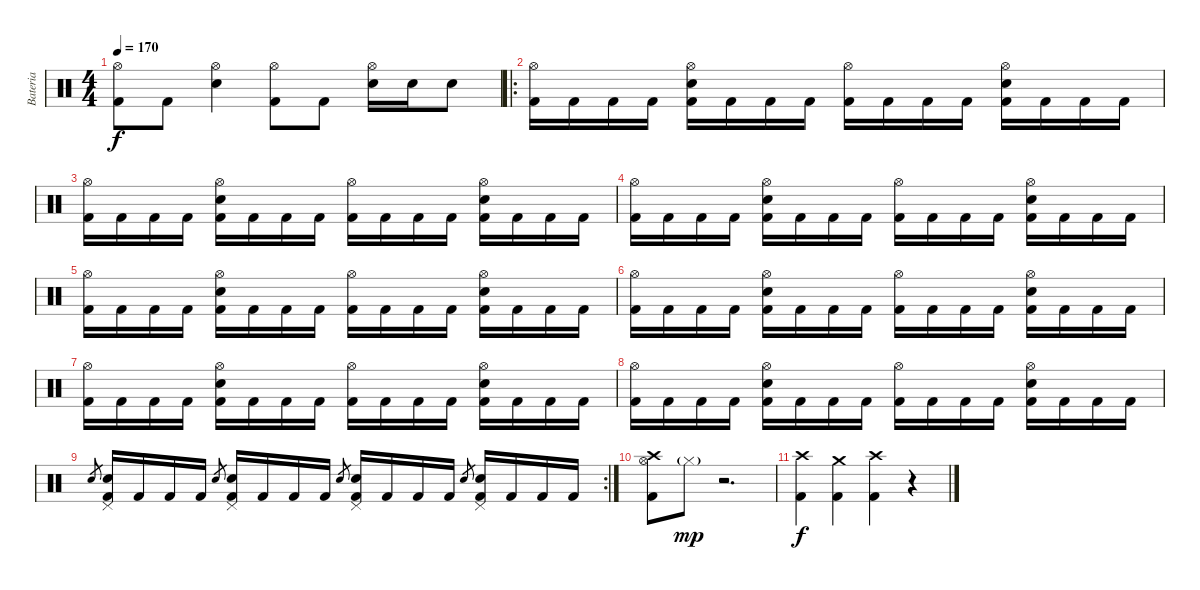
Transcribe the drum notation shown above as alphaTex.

\track ("Bateria" "Bateria") {instrument percussion}
\staff {score}
\articulation defaults
\ts (4 4)
\tempo 170
\clef neutral
\ks c
("Hi-Hat (open)" "Kick (hit) 2").8{dy f} "Kick (hit) 2".8 ("Hi-Hat (open)" "Snare (hit) 2").4 ("Hi-Hat (open)" "Kick (hit) 2").8 "Kick (hit) 2".8 ("Hi-Hat (open)" "Snare (hit) 2").16 "Snare (hit) 2".16 "Snare (hit) 2".8 |
\ro
("Hi-Hat (open)" "Kick (hit) 2").16 "Kick (hit) 2".16 "Kick (hit) 2".16 "Kick (hit) 2".16 ("Hi-Hat (open)" "Snare (hit) 2" "Kick (hit) 2").16 "Kick (hit) 2".16 "Kick (hit) 2".16 "Kick (hit) 2".16 ("Hi-Hat (open)" "Kick (hit) 2").16 "Kick (hit) 2".16 "Kick (hit) 2".16 "Kick (hit) 2".16 ("Hi-Hat (open)" "Snare (hit) 2" "Kick (hit) 2").16 "Kick (hit) 2".16 "Kick (hit) 2".16 "Kick (hit) 2".16 |
("Hi-Hat (open)" "Kick (hit) 2").16 "Kick (hit) 2".16 "Kick (hit) 2".16 "Kick (hit) 2".16 ("Hi-Hat (open)" "Snare (hit) 2" "Kick (hit) 2").16 "Kick (hit) 2".16 "Kick (hit) 2".16 "Kick (hit) 2".16 ("Hi-Hat (open)" "Kick (hit) 2").16 "Kick (hit) 2".16 "Kick (hit) 2".16 "Kick (hit) 2".16 ("Hi-Hat (open)" "Snare (hit) 2" "Kick (hit) 2").16 "Kick (hit) 2".16 "Kick (hit) 2".16 "Kick (hit) 2".16 |
("Hi-Hat (open)" "Kick (hit) 2").16 "Kick (hit) 2".16 "Kick (hit) 2".16 "Kick (hit) 2".16 ("Hi-Hat (open)" "Snare (hit) 2" "Kick (hit) 2").16 "Kick (hit) 2".16 "Kick (hit) 2".16 "Kick (hit) 2".16 ("Hi-Hat (open)" "Kick (hit) 2").16 "Kick (hit) 2".16 "Kick (hit) 2".16 "Kick (hit) 2".16 ("Hi-Hat (open)" "Snare (hit) 2" "Kick (hit) 2").16 "Kick (hit) 2".16 "Kick (hit) 2".16 "Kick (hit) 2".16 |
("Hi-Hat (open)" "Kick (hit) 2").16 "Kick (hit) 2".16 "Kick (hit) 2".16 "Kick (hit) 2".16 ("Hi-Hat (open)" "Snare (hit) 2" "Kick (hit) 2").16 "Kick (hit) 2".16 "Kick (hit) 2".16 "Kick (hit) 2".16 ("Hi-Hat (open)" "Kick (hit) 2").16 "Kick (hit) 2".16 "Kick (hit) 2".16 "Kick (hit) 2".16 ("Hi-Hat (open)" "Snare (hit) 2" "Kick (hit) 2").16 "Kick (hit) 2".16 "Kick (hit) 2".16 "Kick (hit) 2".16 |
("Hi-Hat (open)" "Kick (hit) 2").16 "Kick (hit) 2".16 "Kick (hit) 2".16 "Kick (hit) 2".16 ("Hi-Hat (open)" "Snare (hit) 2" "Kick (hit) 2").16 "Kick (hit) 2".16 "Kick (hit) 2".16 "Kick (hit) 2".16 ("Hi-Hat (open)" "Kick (hit) 2").16 "Kick (hit) 2".16 "Kick (hit) 2".16 "Kick (hit) 2".16 ("Hi-Hat (open)" "Snare (hit) 2" "Kick (hit) 2").16 "Kick (hit) 2".16 "Kick (hit) 2".16 "Kick (hit) 2".16 |
("Hi-Hat (open)" "Kick (hit) 2").16 "Kick (hit) 2".16 "Kick (hit) 2".16 "Kick (hit) 2".16 ("Hi-Hat (open)" "Snare (hit) 2" "Kick (hit) 2").16 "Kick (hit) 2".16 "Kick (hit) 2".16 "Kick (hit) 2".16 ("Hi-Hat (open)" "Kick (hit) 2").16 "Kick (hit) 2".16 "Kick (hit) 2".16 "Kick (hit) 2".16 ("Hi-Hat (open)" "Snare (hit) 2" "Kick (hit) 2").16 "Kick (hit) 2".16 "Kick (hit) 2".16 "Kick (hit) 2".16 |
("Hi-Hat (open)" "Kick (hit) 2").16 "Kick (hit) 2".16 "Kick (hit) 2".16 "Kick (hit) 2".16 ("Hi-Hat (open)" "Snare (hit) 2" "Kick (hit) 2").16 "Kick (hit) 2".16 "Kick (hit) 2".16 "Kick (hit) 2".16 ("Hi-Hat (open)" "Kick (hit) 2").16 "Kick (hit) 2".16 "Kick (hit) 2".16 "Kick (hit) 2".16 ("Hi-Hat (open)" "Snare (hit) 2" "Kick (hit) 2").16 "Kick (hit) 2".16 "Kick (hit) 2".16 "Kick (hit) 2".16 |
\rc 2 "Snare (hit) 2".8{gr}
("Pedal Hi-Hat (hit)" "Snare (hit) 2" "Kick (hit) 2").16 "Kick (hit) 2".16 "Kick (hit) 2".16 "Kick (hit) 2".16 "Snare (hit) 2".8{gr} ("Pedal Hi-Hat (hit)" "Snare (hit) 2" "Kick (hit) 2").16 "Kick (hit) 2".16 "Kick (hit) 2".16 "Kick (hit) 2".16 "Snare (hit) 2".8{gr} ("Pedal Hi-Hat (hit)" "Snare (hit) 2" "Kick (hit) 2").16 "Kick (hit) 2".16 "Kick (hit) 2".16 "Kick (hit) 2".16 "Snare (hit) 2".8{gr} ("Pedal Hi-Hat (hit)" "Snare (hit) 2" "Kick (hit) 2").16 "Kick (hit) 2".16 "Kick (hit) 2".16 "Kick (hit) 2".16 |
("Hi-Hat (open)" "Kick (hit) 2" "Crash high (hit)").8 "Hi-Hat (closed)"{g}.8{dy mp} r.2{d} |
("Kick (hit) 2" "Crash high (hit)").4{dy f} ("Kick (hit) 2" "Crash medium (hit)").4 ("Kick (hit) 2" "Crash high (hit)").4 r.4
